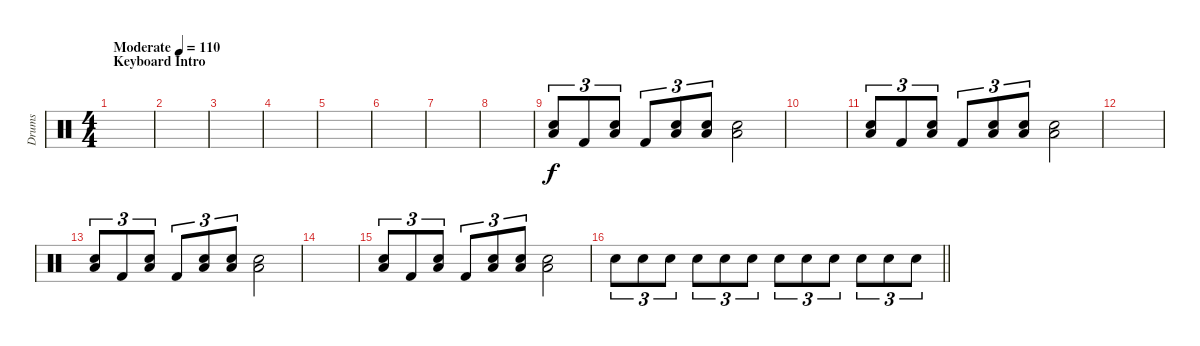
\track ("Drums" "Drums") {instrument percussion}
\staff {score}
\articulation defaults
\ts (4 4)
\section ("" "Keyboard Intro")
\tempo (110 "Moderate")
\clef neutral
\ks c
|
|
|
|
|
|
|
|
("Low Floor Tom (hit)" "Electric Snare (hit)").8{tu (3 2)} "Kick (hit) 2".8{tu (3 2)} ("Low Floor Tom (hit)" "Electric Snare (hit)").8{tu (3 2)} "Kick (hit) 2".8{tu (3 2)} ("Low Floor Tom (hit)" "Electric Snare (hit)").8{tu (3 2)} ("Low Floor Tom (hit)" "Electric Snare (hit)").8{tu (3 2)} ("Low Floor Tom (hit)" "Electric Snare (hit)").2 |
|
("Low Floor Tom (hit)" "Electric Snare (hit)").8{tu (3 2)} "Kick (hit) 2".8{tu (3 2)} ("Low Floor Tom (hit)" "Electric Snare (hit)").8{tu (3 2)} "Kick (hit) 2".8{tu (3 2)} ("Low Floor Tom (hit)" "Electric Snare (hit)").8{tu (3 2)} ("Low Floor Tom (hit)" "Electric Snare (hit)").8{tu (3 2)} ("Low Floor Tom (hit)" "Electric Snare (hit)").2 |
|
("Low Floor Tom (hit)" "Electric Snare (hit)").8{tu (3 2)} "Kick (hit) 2".8{tu (3 2)} ("Low Floor Tom (hit)" "Electric Snare (hit)").8{tu (3 2)} "Kick (hit) 2".8{tu (3 2)} ("Low Floor Tom (hit)" "Electric Snare (hit)").8{tu (3 2)} ("Low Floor Tom (hit)" "Electric Snare (hit)").8{tu (3 2)} ("Low Floor Tom (hit)" "Electric Snare (hit)").2 |
|
("Low Floor Tom (hit)" "Electric Snare (hit)").8{tu (3 2)} "Kick (hit) 2".8{tu (3 2)} ("Low Floor Tom (hit)" "Electric Snare (hit)").8{tu (3 2)} "Kick (hit) 2".8{tu (3 2)} ("Low Floor Tom (hit)" "Electric Snare (hit)").8{tu (3 2)} ("Low Floor Tom (hit)" "Electric Snare (hit)").8{tu (3 2)} ("Low Floor Tom (hit)" "Electric Snare (hit)").2 |
\barLineRight lightlight "Electric Snare (hit)".8{tu (3 2)} "Electric Snare (hit)".8{tu (3 2)} "Electric Snare (hit)".8{tu (3 2)} "Electric Snare (hit)".8{tu (3 2)} "Electric Snare (hit)".8{tu (3 2)} "Electric Snare (hit)".8{tu (3 2)} "Electric Snare (hit)".8{tu (3 2)} "Electric Snare (hit)".8{tu (3 2)} "Electric Snare (hit)".8{tu (3 2)} "Electric Snare (hit)".8{tu (3 2)} "Electric Snare (hit)".8{tu (3 2)} "Electric Snare (hit)".8{tu (3 2)}
